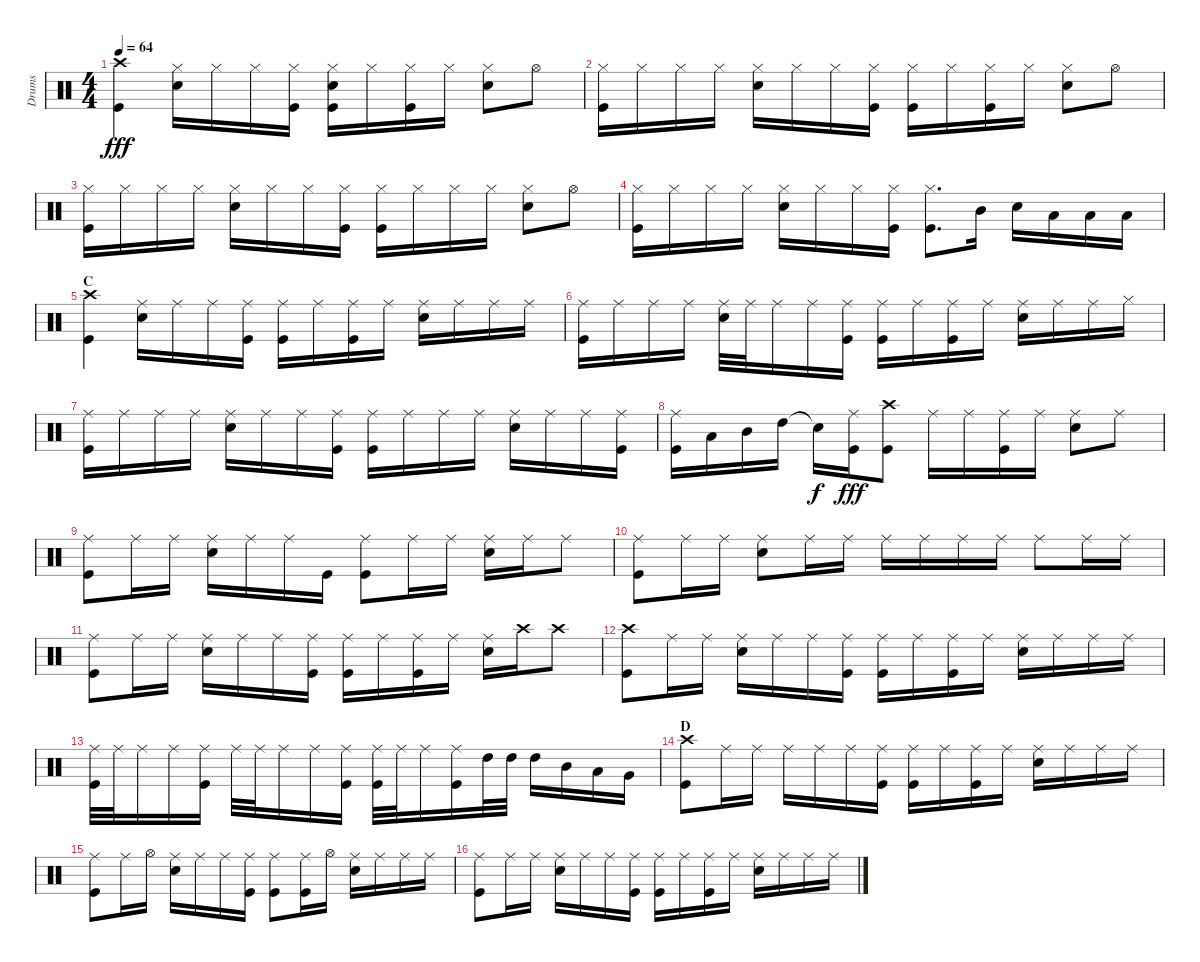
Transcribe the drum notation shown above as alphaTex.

\track ("Drums" "Drums") {instrument percussion}
\staff {score}
\articulation defaults
\ts (4 4)
\tempo 64
\clef neutral
\ks c
("Crash high (hit)" "Kick (hit)").4{dy fff} ("Hi-Hat (closed)" "Snare (hit) 2").16 "Hi-Hat (closed)".16 "Hi-Hat (closed)".16 ("Hi-Hat (closed)" "Kick (hit)").16 ("Hi-Hat (closed)" "Snare (hit) 2" "Kick (hit)").16 "Hi-Hat (closed)".16 ("Hi-Hat (closed)" "Kick (hit)").16 "Hi-Hat (closed)".16 ("Hi-Hat (closed)" "Snare (hit) 2").8 "Hi-Hat (open)".8 |
("Hi-Hat (closed)" "Kick (hit)").16 "Hi-Hat (closed)".16 "Hi-Hat (closed)".16 "Hi-Hat (closed)".16 ("Hi-Hat (closed)" "Snare (hit) 2").16 "Hi-Hat (closed)".16 "Hi-Hat (closed)".16 ("Hi-Hat (closed)" "Kick (hit)").16 ("Hi-Hat (closed)" "Kick (hit)").16 "Hi-Hat (closed)".16 ("Hi-Hat (closed)" "Kick (hit)").16 "Hi-Hat (closed)".16 ("Hi-Hat (closed)" "Snare (hit) 2").8 "Hi-Hat (open)".8 |
("Hi-Hat (closed)" "Kick (hit)").16 "Hi-Hat (closed)".16 "Hi-Hat (closed)".16 "Hi-Hat (closed)".16 ("Hi-Hat (closed)" "Snare (hit) 2").16 "Hi-Hat (closed)".16 "Hi-Hat (closed)".16 ("Hi-Hat (closed)" "Kick (hit)").16 ("Hi-Hat (closed)" "Kick (hit)").16 "Hi-Hat (closed)".16 "Hi-Hat (closed)".16 "Hi-Hat (closed)".16 ("Hi-Hat (closed)" "Snare (hit) 2").8 "Hi-Hat (open)".8 |
("Hi-Hat (closed)" "Kick (hit)").16 "Hi-Hat (closed)".16 "Hi-Hat (closed)".16 "Hi-Hat (closed)".16 ("Hi-Hat (closed)" "Snare (hit) 2").16 "Hi-Hat (closed)".16 "Hi-Hat (closed)".16 ("Hi-Hat (closed)" "Kick (hit)").16 ("Hi-Hat (closed)" "Kick (hit)").8{d} "Mid Tom (hit)".16 "Snare (hit) 2".16 "Low Tom (hit)".16 "Low Tom (hit)".16 "Low Tom (hit)".16 |
\section ("" "C")
("Crash high (hit)" "Kick (hit)").4 ("Ride (middle)" "Snare (hit) 2").16 "Ride (middle)".16 "Ride (middle)".16 ("Ride (middle)" "Kick (hit)").16 ("Ride (middle)" "Kick (hit)").16 "Ride (middle)".16 ("Ride (middle)" "Kick (hit)").16 "Ride (middle)".16 ("Ride (middle)" "Snare (hit) 2").16 "Ride (middle)".16 "Ride (middle)".16 "Ride (middle)".16 |
("Ride (middle)" "Kick (hit)").16 "Ride (middle)".16 "Ride (middle)".16 "Ride (middle)".16 ("Ride (middle)" "Snare (hit) 2").32 "Ride (middle)".32 "Ride (middle)".16 "Ride (middle)".16 ("Ride (middle)" "Kick (hit)").16 ("Ride (middle)" "Kick (hit)").16 "Ride (middle)".16 ("Ride (middle)" "Kick (hit)").16 "Ride (middle)".16 ("Ride (middle)" "Snare (hit) 2").16 "Ride (middle)".16 "Ride (middle)".16 "Hi-Hat (closed)".16 |
("Ride (middle)" "Kick (hit)").16 "Ride (middle)".16 "Ride (middle)".16 "Ride (middle)".16 ("Ride (middle)" "Snare (hit) 2").16 "Ride (middle)".16 "Ride (middle)".16 ("Ride (middle)" "Kick (hit)").16 ("Ride (middle)" "Kick (hit)").16 "Ride (middle)".16 "Ride (middle)".16 "Ride (middle)".16 ("Ride (middle)" "Snare (hit) 2").16 "Ride (middle)".16 "Ride (middle)".16 ("Ride (middle)" "Kick (hit)").16 |
("Ride (middle)" "Kick (hit)").16 "Low Tom (hit)".16 "Mid Tom (hit)".16 "High Tom (hit)".16 "Snare (hit)"{t}.16{dy f} ("Ride (middle)" "Kick (hit)").16{dy fff} ("Crash high (hit)" "Kick (hit)").8 "Ride (middle)".16 "Ride (middle)".16 ("Ride (middle)" "Kick (hit)").16 "Ride (middle)".16 ("Ride (middle)" "Snare (hit) 2").8 "Ride (middle)".8 |
("Ride (middle)" "Kick (hit)").8 "Ride (middle)".16 "Ride (middle)".16 ("Ride (middle)" "Snare (hit) 2").16 "Ride (middle)".16 "Ride (middle)".16 "Kick (hit)".16 ("Ride (middle)" "Kick (hit)").8 "Ride (middle)".16 "Ride (middle)".16 ("Ride (middle)" "Snare (hit) 2").16 "Ride (middle)".16 "Ride (middle)".8 |
("Ride (middle)" "Kick (hit)").8 "Ride (middle)".16 "Ride (middle)".16 ("Ride (middle)" "Snare (hit) 2").8 "Ride (middle)".16 "Ride (middle)".16 "Ride (middle)".16 "Ride (middle)".16 "Ride (middle)".16 "Ride (middle)".16 "Ride (middle)".8 "Ride (middle)".16 "Ride (middle)".16 |
("Ride (middle)" "Kick (hit)").8 "Ride (middle)".16 "Ride (middle)".16 ("Ride (middle)" "Snare (hit) 2").16 "Ride (middle)".16 "Ride (middle)".16 ("Ride (middle)" "Kick (hit)").16 ("Ride (middle)" "Kick (hit)").16 "Ride (middle)".16 ("Ride (middle)" "Kick (hit)").16 "Ride (middle)".16 ("Ride (middle)" "Snare (hit) 2").16 "Crash high (hit)".16 "Crash high (hit)".8 |
("Crash high (hit)" "Kick (hit)").8 "Ride (middle)".16 "Ride (middle)".16 ("Ride (middle)" "Snare (hit) 2").16 "Ride (middle)".16 "Ride (middle)".16 ("Ride (middle)" "Kick (hit)").16 ("Ride (middle)" "Kick (hit)").16 "Ride (middle)".16 ("Ride (middle)" "Kick (hit)").16 "Ride (middle)".16 ("Ride (middle)" "Snare (hit) 2").16 "Ride (middle)".16 "Ride (middle)".16 "Ride (middle)".16 |
("Ride (middle)" "Kick (hit)").32 "Ride (middle)".32 "Ride (middle)".16 "Ride (middle)".16 ("Ride (middle)" "Kick (hit)").16 "Ride (middle)".32 "Ride (middle)".32 "Ride (middle)".16 "Ride (middle)".16 ("Ride (middle)" "Kick (hit)").16 ("Ride (middle)" "Kick (hit)").32 "Ride (middle)".32 "Ride (middle)".16 ("Ride (middle)" "Kick (hit)").16 "High Tom (hit)".32 "High Tom (hit)".32 "High Tom (hit)".16 "Mid Tom (hit)".16 "Low Tom (hit)".16 "Very Low Tom (hit)".16 |
\section ("" "D")
("Crash high (hit)" "Kick (hit)").8 "Ride (middle)".16 "Ride (middle)".16 "Ride (middle)".16 "Ride (middle)".16 "Ride (middle)".16 ("Ride (middle)" "Kick (hit)").16 ("Ride (middle)" "Kick (hit)").16 "Ride (middle)".16 ("Ride (middle)" "Kick (hit)").16 "Ride (middle)".16 ("Ride (middle)" "Snare (hit) 2").16 "Ride (middle)".16 "Ride (middle)".16 "Ride (middle)".16 |
("Ride (middle)" "Kick (hit)").8 "Ride (middle)".16 "Hi-Hat (open)".16 ("Ride (middle)" "Snare (hit) 2").16 "Ride (middle)".16 "Ride (middle)".16 ("Ride (middle)" "Kick (hit)").16 ("Ride (middle)" "Kick (hit)").8 ("Ride (middle)" "Kick (hit)").16 "Hi-Hat (open)".16 ("Ride (middle)" "Snare (hit) 2").16 "Ride (middle)".16 "Ride (middle)".16 "Ride (middle)".16 |
("Ride (middle)" "Kick (hit)").8 "Ride (middle)".16 "Ride (middle)".16 ("Ride (middle)" "Snare (hit) 2").16 "Ride (middle)".16 "Ride (middle)".16 ("Ride (middle)" "Kick (hit)").16 ("Ride (middle)" "Kick (hit)").16 "Ride (middle)".16 ("Ride (middle)" "Kick (hit)").16 "Ride (middle)".16 ("Ride (middle)" "Snare (hit) 2").16 "Ride (middle)".16 "Ride (middle)".16 "Ride (middle)".16
